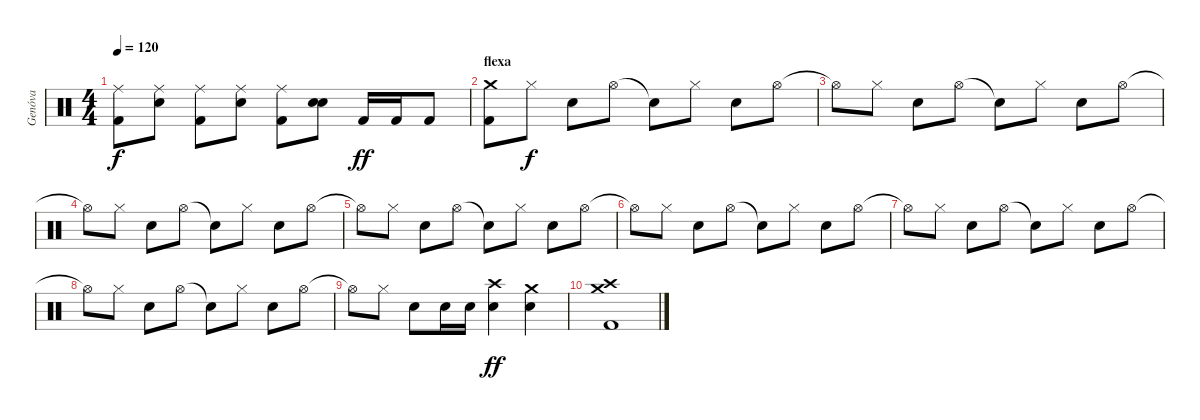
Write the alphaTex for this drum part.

\track ("Genóva" "Genóva") {instrument percussion}
\staff {score}
\articulation defaults
\ts (4 4)
\tempo 120
\clef neutral
\ks c
("Kick (hit) 2" "Ride (middle)").8{dy f} ("Snare (hit) 2" "Ride (middle)").8 ("Kick (hit) 2" "Ride (middle)").8 ("Snare (hit) 2" "Ride (middle)").8 ("Kick (hit) 2" "Ride (middle)").8 ("Snare (hit) 2" "Snare (hit) 2").8{bd 120} "Kick (hit) 2".16{dy ff} "Kick (hit) 2".16 "Kick (hit) 2".8 |
\section ("" "flexa")
("Crash medium (hit)" "Kick (hit) 2").8 "Hi-Hat (closed)".8{dy f} "Snare (hit) 2".8 "Hi-Hat (open)".8 "Snare (hit)"{t}.8 "Hi-Hat (closed)".8 "Snare (hit) 2".8 "Hi-Hat (open)".8 |
"Hi-Hat (open)"{t}.8 "Hi-Hat (closed)".8 "Snare (hit) 2".8 "Hi-Hat (open)".8 "Snare (hit)"{t}.8 "Hi-Hat (closed)".8 "Snare (hit) 2".8 "Hi-Hat (open)".8 |
"Hi-Hat (open)"{t}.8 "Hi-Hat (closed)".8 "Snare (hit) 2".8 "Hi-Hat (open)".8 "Snare (hit)"{t}.8 "Hi-Hat (closed)".8 "Snare (hit) 2".8 "Hi-Hat (open)".8 |
"Hi-Hat (open)"{t}.8 "Hi-Hat (closed)".8 "Snare (hit) 2".8 "Hi-Hat (open)".8 "Snare (hit)"{t}.8 "Hi-Hat (closed)".8 "Snare (hit) 2".8 "Hi-Hat (open)".8 |
"Hi-Hat (open)"{t}.8 "Hi-Hat (closed)".8 "Snare (hit) 2".8 "Hi-Hat (open)".8 "Snare (hit)"{t}.8 "Hi-Hat (closed)".8 "Snare (hit) 2".8 "Hi-Hat (open)".8 |
"Hi-Hat (open)"{t}.8 "Hi-Hat (closed)".8 "Snare (hit) 2".8 "Hi-Hat (open)".8 "Snare (hit)"{t}.8 "Hi-Hat (closed)".8 "Snare (hit) 2".8 "Hi-Hat (open)".8 |
"Hi-Hat (open)"{t}.8 "Hi-Hat (closed)".8 "Snare (hit) 2".8 "Hi-Hat (open)".8 "Snare (hit)"{t}.8 "Hi-Hat (closed)".8 "Snare (hit) 2".8 "Hi-Hat (open)".8 |
"Hi-Hat (open)"{t}.8 "Hi-Hat (closed)".8 "Snare (hit) 2".8 "Snare (hit) 2".16 "Snare (hit) 2".16 ("Snare (hit) 2" "Crash high (hit)").4{dy ff} ("Snare (hit) 2" "Crash medium (hit)").4 |
("Crash medium (hit)" "Kick (hit) 2" "Crash high (hit)").1
